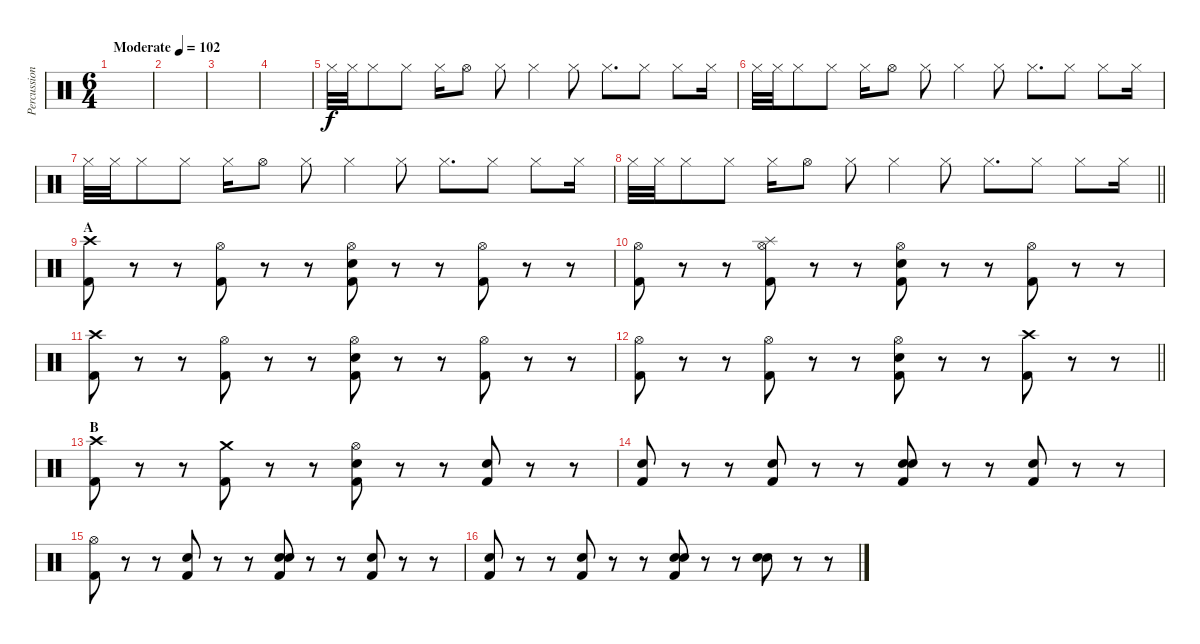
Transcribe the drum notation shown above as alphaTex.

\track ("Percussion" "Percussion") {instrument percussion}
\staff {score}
\articulation defaults
\ts (6 4)
\section ("" "")
\tempo (102 "Moderate")
\clef neutral
\ks c
|
|
|
|
"Hi-Hat (closed)".32{volume 6} "Hi-Hat (closed)".32 "Hi-Hat (closed)".8 "Hi-Hat (closed)".8 "Hi-Hat (closed)".16 "Hi-Hat (open)".8 "Hi-Hat (closed)".8 "Hi-Hat (closed)".4 "Hi-Hat (closed)".8 "Hi-Hat (closed)".8{d} "Hi-Hat (closed)".8 "Hi-Hat (closed)".8 "Hi-Hat (closed)".16 |
"Hi-Hat (closed)".32 "Hi-Hat (closed)".32 "Hi-Hat (closed)".8 "Hi-Hat (closed)".8 "Hi-Hat (closed)".16 "Hi-Hat (open)".8 "Hi-Hat (closed)".8 "Hi-Hat (closed)".4 "Hi-Hat (closed)".8 "Hi-Hat (closed)".8{d} "Hi-Hat (closed)".8 "Hi-Hat (closed)".8 "Hi-Hat (closed)".16 |
"Hi-Hat (closed)".32 "Hi-Hat (closed)".32 "Hi-Hat (closed)".8 "Hi-Hat (closed)".8 "Hi-Hat (closed)".16 "Hi-Hat (open)".8 "Hi-Hat (closed)".8 "Hi-Hat (closed)".4 "Hi-Hat (closed)".8 "Hi-Hat (closed)".8{d} "Hi-Hat (closed)".8 "Hi-Hat (closed)".8 "Hi-Hat (closed)".16 |
\barLineRight lightlight "Hi-Hat (closed)".32 "Hi-Hat (closed)".32 "Hi-Hat (closed)".8 "Hi-Hat (closed)".8 "Hi-Hat (closed)".16 "Hi-Hat (open)".8 "Hi-Hat (closed)".8 "Hi-Hat (closed)".4 "Hi-Hat (closed)".8 "Hi-Hat (closed)".8{d} "Hi-Hat (closed)".8 "Hi-Hat (closed)".8 "Hi-Hat (closed)".16
|
\section ("" "A")
("Crash high (hit)" "Kick (hit) 2").8{volume 13} r.8 r.8 ("Hi-Hat (open)" "Kick (hit) 2").8 r.8 r.8 ("Hi-Hat (open)" "Snare (hit) 2" "Kick (hit) 2").8 r.8 r.8 ("Hi-Hat (open)" "Kick (hit) 2").8 r.8 r.8 |
("Hi-Hat (open)" "Kick (hit) 2").8 r.8 r.8 ("Hi-Hat (open)" "Splash (hit)" "Kick (hit) 2").8 r.8 r.8 ("Hi-Hat (open)" "Snare (hit) 2" "Kick (hit) 2").8 r.8 r.8 ("Hi-Hat (open)" "Kick (hit) 2").8 r.8 r.8 |
("Crash high (hit)" "Kick (hit) 2").8 r.8 r.8 ("Hi-Hat (open)" "Kick (hit) 2").8 r.8 r.8 ("Hi-Hat (open)" "Snare (hit) 2" "Kick (hit) 2").8 r.8 r.8 ("Hi-Hat (open)" "Kick (hit) 2").8 r.8 r.8 |
\barLineRight lightlight
("Hi-Hat (open)" "Kick (hit) 2").8 r.8 r.8 ("Hi-Hat (open)" "Kick (hit) 2").8 r.8 r.8 ("Hi-Hat (open)" "Snare (hit) 2" "Kick (hit) 2").8 r.8 r.8 ("Crash high (hit)" "Kick (hit) 2").8 r.8 r.8 |
\section ("" "B")
("Crash high (hit)" "Kick (hit) 2").8 r.8 r.8 ("Crash medium (hit)" "Kick (hit) 2").8 r.8 r.8 ("Hi-Hat (open)" "Snare (hit) 2" "Kick (hit) 2").8 r.8 r.8 ("Snare (hit)" "Kick (hit) 2").8 r.8 r.8 |
("Snare (hit)" "Kick (hit) 2").8 r.8 r.8 ("Snare (hit)" "Kick (hit) 2").8 r.8 r.8 ("Snare (hit)" "Snare (hit) 2" "Kick (hit) 2").8 r.8 r.8 ("Snare (hit)" "Kick (hit) 2").8 r.8 r.8 |
("Hi-Hat (open)" "Kick (hit) 2").8 r.8 r.8 ("Snare (hit)" "Kick (hit) 2").8 r.8 r.8 ("Snare (hit)" "Snare (hit) 2" "Kick (hit) 2").8 r.8 r.8 ("Snare (hit)" "Kick (hit) 2").8 r.8 r.8 |
("Snare (hit)" "Kick (hit) 2").8 r.8 r.8 ("Snare (hit)" "Kick (hit) 2").8 r.8 r.8 ("Snare (hit)" "Snare (hit) 2" "Kick (hit) 2").8 r.8 r.8 ("Snare (hit)" "Snare (hit) 2").8 r.8 r.8
